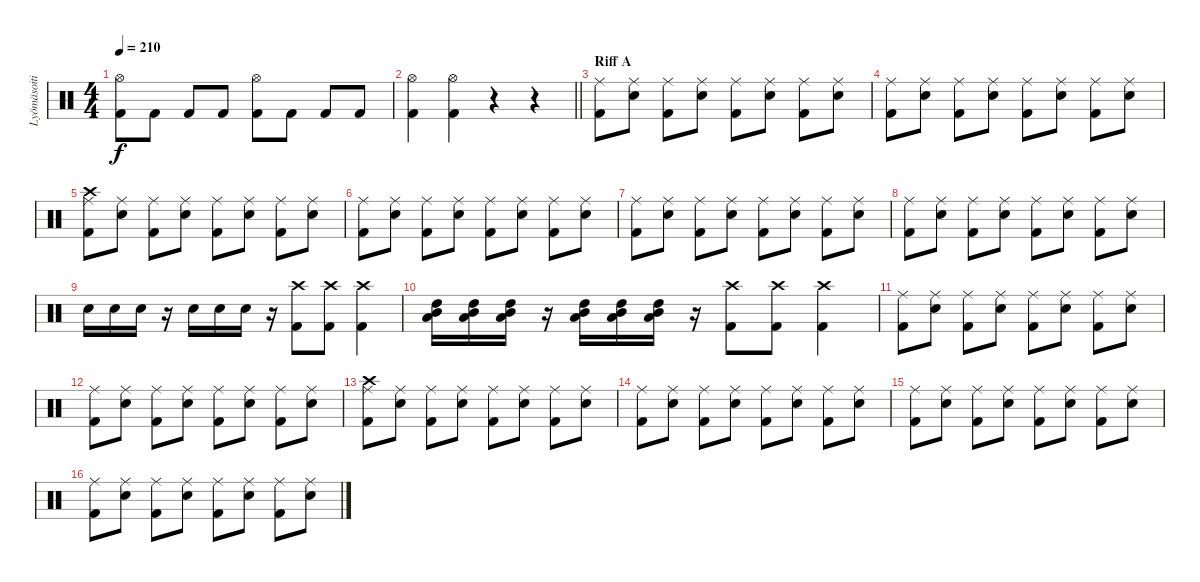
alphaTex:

\track ("Lyömäsoitin" "Lyömäsoiti") {instrument percussion}
\staff {score}
\articulation defaults
\ts (4 4)
\tempo 210
\clef neutral
\ks c
("Hi-Hat (open)" "Kick (hit) 2").8{dy f} "Kick (hit) 2".8 "Kick (hit) 2".8 "Kick (hit) 2".8 ("Hi-Hat (open)" "Kick (hit) 2").8 "Kick (hit) 2".8 "Kick (hit) 2".8 "Kick (hit) 2".8 |
\barLineRight lightlight
("Kick (hit) 2" "Hi-Hat (open)").4 ("Kick (hit) 2" "Hi-Hat (open)").4 r.4 r.4 |
\section ("" "Riff A")
("Ride (middle)" "Kick (hit) 2").8 ("Ride (middle)" "Electric Snare (hit)").8 ("Ride (middle)" "Kick (hit) 2").8 ("Ride (middle)" "Electric Snare (hit)").8 ("Ride (middle)" "Kick (hit) 2").8 ("Ride (middle)" "Electric Snare (hit)").8 ("Ride (middle)" "Kick (hit) 2").8 ("Ride (middle)" "Electric Snare (hit)").8 |
("Ride (middle)" "Kick (hit) 2").8 ("Ride (middle)" "Electric Snare (hit)").8 ("Ride (middle)" "Kick (hit) 2").8 ("Ride (middle)" "Electric Snare (hit)").8 ("Ride (middle)" "Kick (hit) 2").8 ("Ride (middle)" "Electric Snare (hit)").8 ("Ride (middle)" "Kick (hit) 2").8 ("Ride (middle)" "Electric Snare (hit)").8 |
("Crash high (hit)" "Ride (middle)" "Kick (hit) 2").8 ("Ride (middle)" "Electric Snare (hit)").8 ("Ride (middle)" "Kick (hit) 2").8 ("Ride (middle)" "Electric Snare (hit)").8 ("Ride (middle)" "Kick (hit) 2").8 ("Ride (middle)" "Electric Snare (hit)").8 ("Ride (middle)" "Kick (hit) 2").8 ("Ride (middle)" "Electric Snare (hit)").8 |
("Ride (middle)" "Kick (hit) 2").8 ("Ride (middle)" "Electric Snare (hit)").8 ("Ride (middle)" "Kick (hit) 2").8 ("Ride (middle)" "Electric Snare (hit)").8 ("Ride (middle)" "Kick (hit) 2").8 ("Ride (middle)" "Electric Snare (hit)").8 ("Ride (middle)" "Kick (hit) 2").8 ("Ride (middle)" "Electric Snare (hit)").8 |
("Ride (middle)" "Kick (hit) 2").8 ("Ride (middle)" "Electric Snare (hit)").8 ("Ride (middle)" "Kick (hit) 2").8 ("Ride (middle)" "Electric Snare (hit)").8 ("Ride (middle)" "Kick (hit) 2").8 ("Ride (middle)" "Electric Snare (hit)").8 ("Ride (middle)" "Kick (hit) 2").8 ("Ride (middle)" "Electric Snare (hit)").8 |
("Ride (middle)" "Kick (hit) 2").8 ("Ride (middle)" "Electric Snare (hit)").8 ("Ride (middle)" "Kick (hit) 2").8 ("Ride (middle)" "Electric Snare (hit)").8 ("Ride (middle)" "Kick (hit) 2").8 ("Ride (middle)" "Electric Snare (hit)").8 ("Ride (middle)" "Kick (hit) 2").8 ("Ride (middle)" "Electric Snare (hit)").8 |
"Electric Snare (hit)".16 "Electric Snare (hit)".16 "Electric Snare (hit)".16 r.16 "Electric Snare (hit)".16 "Electric Snare (hit)".16 "Electric Snare (hit)".16 r.16 ("Crash high (hit)" "Kick (hit) 2").8 ("Crash high (hit)" "Kick (hit) 2").8 ("Crash high (hit)" "Kick (hit) 2").4 |
("High Tom (hit)" "Mid Tom (hit)" "Low Floor Tom (hit)").16 ("High Tom (hit)" "Mid Tom (hit)" "Low Floor Tom (hit)").16 ("High Tom (hit)" "Mid Tom (hit)" "Low Floor Tom (hit)").16 r.16 ("High Tom (hit)" "Mid Tom (hit)" "Low Floor Tom (hit)").16 ("High Tom (hit)" "Mid Tom (hit)" "Low Floor Tom (hit)").16 ("High Tom (hit)" "Mid Tom (hit)" "Low Floor Tom (hit)").16 r.16 ("Crash high (hit)" "Kick (hit) 2").8 ("Crash high (hit)" "Kick (hit) 2").8 ("Crash high (hit)" "Kick (hit) 2").4 |
("Ride (middle)" "Kick (hit) 2").8 ("Ride (middle)" "Electric Snare (hit)").8 ("Ride (middle)" "Kick (hit) 2").8 ("Ride (middle)" "Electric Snare (hit)").8 ("Ride (middle)" "Kick (hit) 2").8 ("Ride (middle)" "Electric Snare (hit)").8 ("Ride (middle)" "Kick (hit) 2").8 ("Ride (middle)" "Electric Snare (hit)").8 |
("Ride (middle)" "Kick (hit) 2").8 ("Ride (middle)" "Electric Snare (hit)").8 ("Ride (middle)" "Kick (hit) 2").8 ("Ride (middle)" "Electric Snare (hit)").8 ("Ride (middle)" "Kick (hit) 2").8 ("Ride (middle)" "Electric Snare (hit)").8 ("Ride (middle)" "Kick (hit) 2").8 ("Ride (middle)" "Electric Snare (hit)").8 |
("Crash high (hit)" "Ride (middle)" "Kick (hit) 2").8 ("Ride (middle)" "Electric Snare (hit)").8 ("Ride (middle)" "Kick (hit) 2").8 ("Ride (middle)" "Electric Snare (hit)").8 ("Ride (middle)" "Kick (hit) 2").8 ("Ride (middle)" "Electric Snare (hit)").8 ("Ride (middle)" "Kick (hit) 2").8 ("Ride (middle)" "Electric Snare (hit)").8 |
("Ride (middle)" "Kick (hit) 2").8 ("Ride (middle)" "Electric Snare (hit)").8 ("Ride (middle)" "Kick (hit) 2").8 ("Ride (middle)" "Electric Snare (hit)").8 ("Ride (middle)" "Kick (hit) 2").8 ("Ride (middle)" "Electric Snare (hit)").8 ("Ride (middle)" "Kick (hit) 2").8 ("Ride (middle)" "Electric Snare (hit)").8 |
("Ride (middle)" "Kick (hit) 2").8 ("Ride (middle)" "Electric Snare (hit)").8 ("Ride (middle)" "Kick (hit) 2").8 ("Ride (middle)" "Electric Snare (hit)").8 ("Ride (middle)" "Kick (hit) 2").8 ("Ride (middle)" "Electric Snare (hit)").8 ("Ride (middle)" "Kick (hit) 2").8 ("Ride (middle)" "Electric Snare (hit)").8 |
("Ride (middle)" "Kick (hit) 2").8 ("Ride (middle)" "Electric Snare (hit)").8 ("Ride (middle)" "Kick (hit) 2").8 ("Ride (middle)" "Electric Snare (hit)").8 ("Ride (middle)" "Kick (hit) 2").8 ("Ride (middle)" "Electric Snare (hit)").8 ("Ride (middle)" "Kick (hit) 2").8 ("Ride (middle)" "Electric Snare (hit)").8
